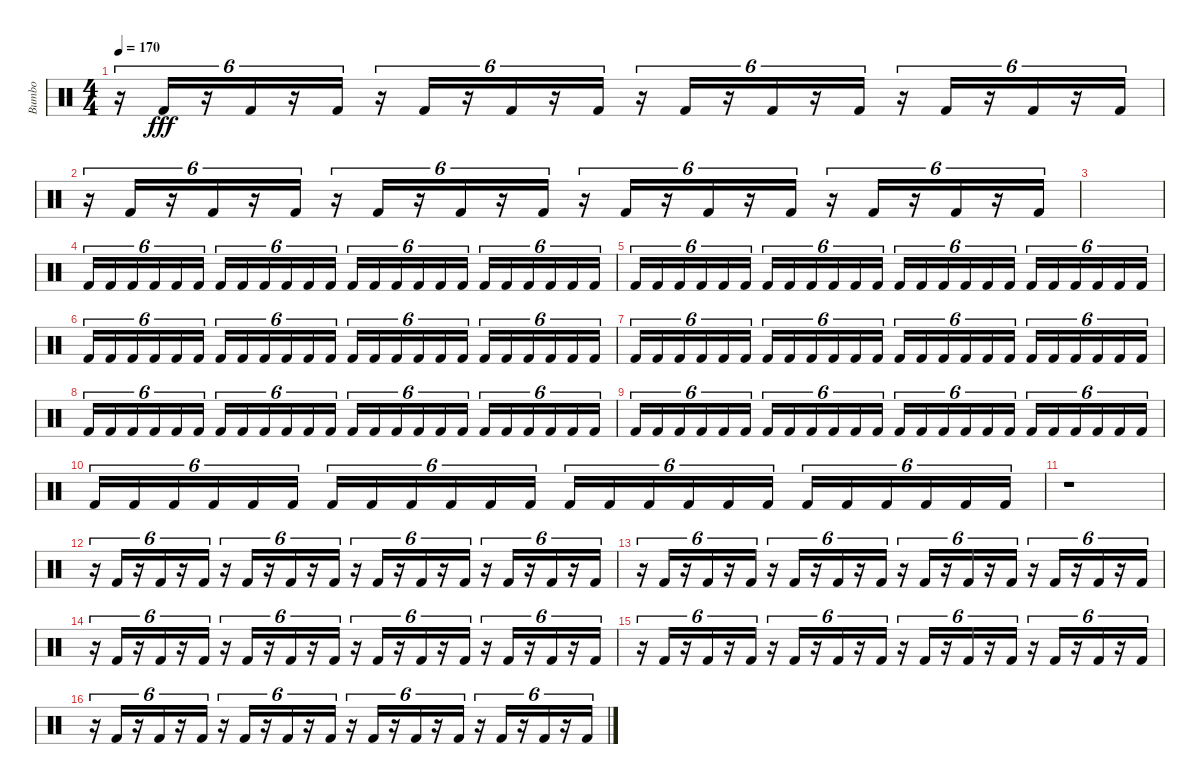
\track ("Bumbo" "Bumbo") {instrument percussion}
\staff {score}
\articulation defaults
\ts (4 4)
\tempo 170
\clef neutral
\ks c
r.16{tu (6 4) dy fff} "Kick (hit) 2".16{tu (6 4)} r.16{tu (6 4)} "Kick (hit) 2".16{tu (6 4)} r.16{tu (6 4)} "Kick (hit) 2".16{tu (6 4)} r.16{tu (6 4)} "Kick (hit) 2".16{tu (6 4)} r.16{tu (6 4)} "Kick (hit) 2".16{tu (6 4)} r.16{tu (6 4)} "Kick (hit) 2".16{tu (6 4)} r.16{tu (6 4)} "Kick (hit) 2".16{tu (6 4)} r.16{tu (6 4)} "Kick (hit) 2".16{tu (6 4)} r.16{tu (6 4)} "Kick (hit) 2".16{tu (6 4)} r.16{tu (6 4)} "Kick (hit) 2".16{tu (6 4)} r.16{tu (6 4)} "Kick (hit) 2".16{tu (6 4)} r.16{tu (6 4)} "Kick (hit) 2".16{tu (6 4)} |
r.16{tu (6 4)} "Kick (hit) 2".16{tu (6 4)} r.16{tu (6 4)} "Kick (hit) 2".16{tu (6 4)} r.16{tu (6 4)} "Kick (hit) 2".16{tu (6 4)} r.16{tu (6 4)} "Kick (hit) 2".16{tu (6 4)} r.16{tu (6 4)} "Kick (hit) 2".16{tu (6 4)} r.16{tu (6 4)} "Kick (hit) 2".16{tu (6 4)} r.16{tu (6 4)} "Kick (hit) 2".16{tu (6 4)} r.16{tu (6 4)} "Kick (hit) 2".16{tu (6 4)} r.16{tu (6 4)} "Kick (hit) 2".16{tu (6 4)} r.16{tu (6 4)} "Kick (hit) 2".16{tu (6 4)} r.16{tu (6 4)} "Kick (hit) 2".16{tu (6 4)} r.16{tu (6 4)} "Kick (hit) 2".16{tu (6 4)} |
|
"Kick (hit) 2".16{tu (6 4)} "Kick (hit) 2".16{tu (6 4)} "Kick (hit) 2".16{tu (6 4)} "Kick (hit) 2".16{tu (6 4)} "Kick (hit) 2".16{tu (6 4)} "Kick (hit) 2".16{tu (6 4)} "Kick (hit) 2".16{tu (6 4)} "Kick (hit) 2".16{tu (6 4)} "Kick (hit) 2".16{tu (6 4)} "Kick (hit) 2".16{tu (6 4)} "Kick (hit) 2".16{tu (6 4)} "Kick (hit) 2".16{tu (6 4)} "Kick (hit) 2".16{tu (6 4)} "Kick (hit) 2".16{tu (6 4)} "Kick (hit) 2".16{tu (6 4)} "Kick (hit) 2".16{tu (6 4)} "Kick (hit) 2".16{tu (6 4)} "Kick (hit) 2".16{tu (6 4)} "Kick (hit) 2".16{tu (6 4)} "Kick (hit) 2".16{tu (6 4)} "Kick (hit) 2".16{tu (6 4)} "Kick (hit) 2".16{tu (6 4)} "Kick (hit) 2".16{tu (6 4)} "Kick (hit) 2".16{tu (6 4)} |
"Kick (hit) 2".16{tu (6 4)} "Kick (hit) 2".16{tu (6 4)} "Kick (hit) 2".16{tu (6 4)} "Kick (hit) 2".16{tu (6 4)} "Kick (hit) 2".16{tu (6 4)} "Kick (hit) 2".16{tu (6 4)} "Kick (hit) 2".16{tu (6 4)} "Kick (hit) 2".16{tu (6 4)} "Kick (hit) 2".16{tu (6 4)} "Kick (hit) 2".16{tu (6 4)} "Kick (hit) 2".16{tu (6 4)} "Kick (hit) 2".16{tu (6 4)} "Kick (hit) 2".16{tu (6 4)} "Kick (hit) 2".16{tu (6 4)} "Kick (hit) 2".16{tu (6 4)} "Kick (hit) 2".16{tu (6 4)} "Kick (hit) 2".16{tu (6 4)} "Kick (hit) 2".16{tu (6 4)} "Kick (hit) 2".16{tu (6 4)} "Kick (hit) 2".16{tu (6 4)} "Kick (hit) 2".16{tu (6 4)} "Kick (hit) 2".16{tu (6 4)} "Kick (hit) 2".16{tu (6 4)} "Kick (hit) 2".16{tu (6 4)} |
"Kick (hit) 2".16{tu (6 4)} "Kick (hit) 2".16{tu (6 4)} "Kick (hit) 2".16{tu (6 4)} "Kick (hit) 2".16{tu (6 4)} "Kick (hit) 2".16{tu (6 4)} "Kick (hit) 2".16{tu (6 4)} "Kick (hit) 2".16{tu (6 4)} "Kick (hit) 2".16{tu (6 4)} "Kick (hit) 2".16{tu (6 4)} "Kick (hit) 2".16{tu (6 4)} "Kick (hit) 2".16{tu (6 4)} "Kick (hit) 2".16{tu (6 4)} "Kick (hit) 2".16{tu (6 4)} "Kick (hit) 2".16{tu (6 4)} "Kick (hit) 2".16{tu (6 4)} "Kick (hit) 2".16{tu (6 4)} "Kick (hit) 2".16{tu (6 4)} "Kick (hit) 2".16{tu (6 4)} "Kick (hit) 2".16{tu (6 4)} "Kick (hit) 2".16{tu (6 4)} "Kick (hit) 2".16{tu (6 4)} "Kick (hit) 2".16{tu (6 4)} "Kick (hit) 2".16{tu (6 4)} "Kick (hit) 2".16{tu (6 4)} |
"Kick (hit) 2".16{tu (6 4)} "Kick (hit) 2".16{tu (6 4)} "Kick (hit) 2".16{tu (6 4)} "Kick (hit) 2".16{tu (6 4)} "Kick (hit) 2".16{tu (6 4)} "Kick (hit) 2".16{tu (6 4)} "Kick (hit) 2".16{tu (6 4)} "Kick (hit) 2".16{tu (6 4)} "Kick (hit) 2".16{tu (6 4)} "Kick (hit) 2".16{tu (6 4)} "Kick (hit) 2".16{tu (6 4)} "Kick (hit) 2".16{tu (6 4)} "Kick (hit) 2".16{tu (6 4)} "Kick (hit) 2".16{tu (6 4)} "Kick (hit) 2".16{tu (6 4)} "Kick (hit) 2".16{tu (6 4)} "Kick (hit) 2".16{tu (6 4)} "Kick (hit) 2".16{tu (6 4)} "Kick (hit) 2".16{tu (6 4)} "Kick (hit) 2".16{tu (6 4)} "Kick (hit) 2".16{tu (6 4)} "Kick (hit) 2".16{tu (6 4)} "Kick (hit) 2".16{tu (6 4)} "Kick (hit) 2".16{tu (6 4)} |
"Kick (hit) 2".16{tu (6 4)} "Kick (hit) 2".16{tu (6 4)} "Kick (hit) 2".16{tu (6 4)} "Kick (hit) 2".16{tu (6 4)} "Kick (hit) 2".16{tu (6 4)} "Kick (hit) 2".16{tu (6 4)} "Kick (hit) 2".16{tu (6 4)} "Kick (hit) 2".16{tu (6 4)} "Kick (hit) 2".16{tu (6 4)} "Kick (hit) 2".16{tu (6 4)} "Kick (hit) 2".16{tu (6 4)} "Kick (hit) 2".16{tu (6 4)} "Kick (hit) 2".16{tu (6 4)} "Kick (hit) 2".16{tu (6 4)} "Kick (hit) 2".16{tu (6 4)} "Kick (hit) 2".16{tu (6 4)} "Kick (hit) 2".16{tu (6 4)} "Kick (hit) 2".16{tu (6 4)} "Kick (hit) 2".16{tu (6 4)} "Kick (hit) 2".16{tu (6 4)} "Kick (hit) 2".16{tu (6 4)} "Kick (hit) 2".16{tu (6 4)} "Kick (hit) 2".16{tu (6 4)} "Kick (hit) 2".16{tu (6 4)} |
"Kick (hit) 2".16{tu (6 4)} "Kick (hit) 2".16{tu (6 4)} "Kick (hit) 2".16{tu (6 4)} "Kick (hit) 2".16{tu (6 4)} "Kick (hit) 2".16{tu (6 4)} "Kick (hit) 2".16{tu (6 4)} "Kick (hit) 2".16{tu (6 4)} "Kick (hit) 2".16{tu (6 4)} "Kick (hit) 2".16{tu (6 4)} "Kick (hit) 2".16{tu (6 4)} "Kick (hit) 2".16{tu (6 4)} "Kick (hit) 2".16{tu (6 4)} "Kick (hit) 2".16{tu (6 4)} "Kick (hit) 2".16{tu (6 4)} "Kick (hit) 2".16{tu (6 4)} "Kick (hit) 2".16{tu (6 4)} "Kick (hit) 2".16{tu (6 4)} "Kick (hit) 2".16{tu (6 4)} "Kick (hit) 2".16{tu (6 4)} "Kick (hit) 2".16{tu (6 4)} "Kick (hit) 2".16{tu (6 4)} "Kick (hit) 2".16{tu (6 4)} "Kick (hit) 2".16{tu (6 4)} "Kick (hit) 2".16{tu (6 4)} |
"Kick (hit) 2".16{tu (6 4)} "Kick (hit) 2".16{tu (6 4)} "Kick (hit) 2".16{tu (6 4)} "Kick (hit) 2".16{tu (6 4)} "Kick (hit) 2".16{tu (6 4)} "Kick (hit) 2".16{tu (6 4)} "Kick (hit) 2".16{tu (6 4)} "Kick (hit) 2".16{tu (6 4)} "Kick (hit) 2".16{tu (6 4)} "Kick (hit) 2".16{tu (6 4)} "Kick (hit) 2".16{tu (6 4)} "Kick (hit) 2".16{tu (6 4)} "Kick (hit) 2".16{tu (6 4)} "Kick (hit) 2".16{tu (6 4)} "Kick (hit) 2".16{tu (6 4)} "Kick (hit) 2".16{tu (6 4)} "Kick (hit) 2".16{tu (6 4)} "Kick (hit) 2".16{tu (6 4)} "Kick (hit) 2".16{tu (6 4)} "Kick (hit) 2".16{tu (6 4)} "Kick (hit) 2".16{tu (6 4)} "Kick (hit) 2".16{tu (6 4)} "Kick (hit) 2".16{tu (6 4)} "Kick (hit) 2".16{tu (6 4)} |
r.1 |
r.16{tu (6 4)} "Kick (hit) 2".16{tu (6 4)} r.16{tu (6 4)} "Kick (hit) 2".16{tu (6 4)} r.16{tu (6 4)} "Kick (hit) 2".16{tu (6 4)} r.16{tu (6 4)} "Kick (hit) 2".16{tu (6 4)} r.16{tu (6 4)} "Kick (hit) 2".16{tu (6 4)} r.16{tu (6 4)} "Kick (hit) 2".16{tu (6 4)} r.16{tu (6 4)} "Kick (hit) 2".16{tu (6 4)} r.16{tu (6 4)} "Kick (hit) 2".16{tu (6 4)} r.16{tu (6 4)} "Kick (hit) 2".16{tu (6 4)} r.16{tu (6 4)} "Kick (hit) 2".16{tu (6 4)} r.16{tu (6 4)} "Kick (hit) 2".16{tu (6 4)} r.16{tu (6 4)} "Kick (hit) 2".16{tu (6 4)} |
r.16{tu (6 4)} "Kick (hit) 2".16{tu (6 4)} r.16{tu (6 4)} "Kick (hit) 2".16{tu (6 4)} r.16{tu (6 4)} "Kick (hit) 2".16{tu (6 4)} r.16{tu (6 4)} "Kick (hit) 2".16{tu (6 4)} r.16{tu (6 4)} "Kick (hit) 2".16{tu (6 4)} r.16{tu (6 4)} "Kick (hit) 2".16{tu (6 4)} r.16{tu (6 4)} "Kick (hit) 2".16{tu (6 4)} r.16{tu (6 4)} "Kick (hit) 2".16{tu (6 4)} r.16{tu (6 4)} "Kick (hit) 2".16{tu (6 4)} r.16{tu (6 4)} "Kick (hit) 2".16{tu (6 4)} r.16{tu (6 4)} "Kick (hit) 2".16{tu (6 4)} r.16{tu (6 4)} "Kick (hit) 2".16{tu (6 4)} |
r.16{tu (6 4)} "Kick (hit) 2".16{tu (6 4)} r.16{tu (6 4)} "Kick (hit) 2".16{tu (6 4)} r.16{tu (6 4)} "Kick (hit) 2".16{tu (6 4)} r.16{tu (6 4)} "Kick (hit) 2".16{tu (6 4)} r.16{tu (6 4)} "Kick (hit) 2".16{tu (6 4)} r.16{tu (6 4)} "Kick (hit) 2".16{tu (6 4)} r.16{tu (6 4)} "Kick (hit) 2".16{tu (6 4)} r.16{tu (6 4)} "Kick (hit) 2".16{tu (6 4)} r.16{tu (6 4)} "Kick (hit) 2".16{tu (6 4)} r.16{tu (6 4)} "Kick (hit) 2".16{tu (6 4)} r.16{tu (6 4)} "Kick (hit) 2".16{tu (6 4)} r.16{tu (6 4)} "Kick (hit) 2".16{tu (6 4)} |
r.16{tu (6 4)} "Kick (hit) 2".16{tu (6 4)} r.16{tu (6 4)} "Kick (hit) 2".16{tu (6 4)} r.16{tu (6 4)} "Kick (hit) 2".16{tu (6 4)} r.16{tu (6 4)} "Kick (hit) 2".16{tu (6 4)} r.16{tu (6 4)} "Kick (hit) 2".16{tu (6 4)} r.16{tu (6 4)} "Kick (hit) 2".16{tu (6 4)} r.16{tu (6 4)} "Kick (hit) 2".16{tu (6 4)} r.16{tu (6 4)} "Kick (hit) 2".16{tu (6 4)} r.16{tu (6 4)} "Kick (hit) 2".16{tu (6 4)} r.16{tu (6 4)} "Kick (hit) 2".16{tu (6 4)} r.16{tu (6 4)} "Kick (hit) 2".16{tu (6 4)} r.16{tu (6 4)} "Kick (hit) 2".16{tu (6 4)} |
r.16{tu (6 4)} "Kick (hit) 2".16{tu (6 4)} r.16{tu (6 4)} "Kick (hit) 2".16{tu (6 4)} r.16{tu (6 4)} "Kick (hit) 2".16{tu (6 4)} r.16{tu (6 4)} "Kick (hit) 2".16{tu (6 4)} r.16{tu (6 4)} "Kick (hit) 2".16{tu (6 4)} r.16{tu (6 4)} "Kick (hit) 2".16{tu (6 4)} r.16{tu (6 4)} "Kick (hit) 2".16{tu (6 4)} r.16{tu (6 4)} "Kick (hit) 2".16{tu (6 4)} r.16{tu (6 4)} "Kick (hit) 2".16{tu (6 4)} r.16{tu (6 4)} "Kick (hit) 2".16{tu (6 4)} r.16{tu (6 4)} "Kick (hit) 2".16{tu (6 4)} r.16{tu (6 4)} "Kick (hit) 2".16{tu (6 4)}
